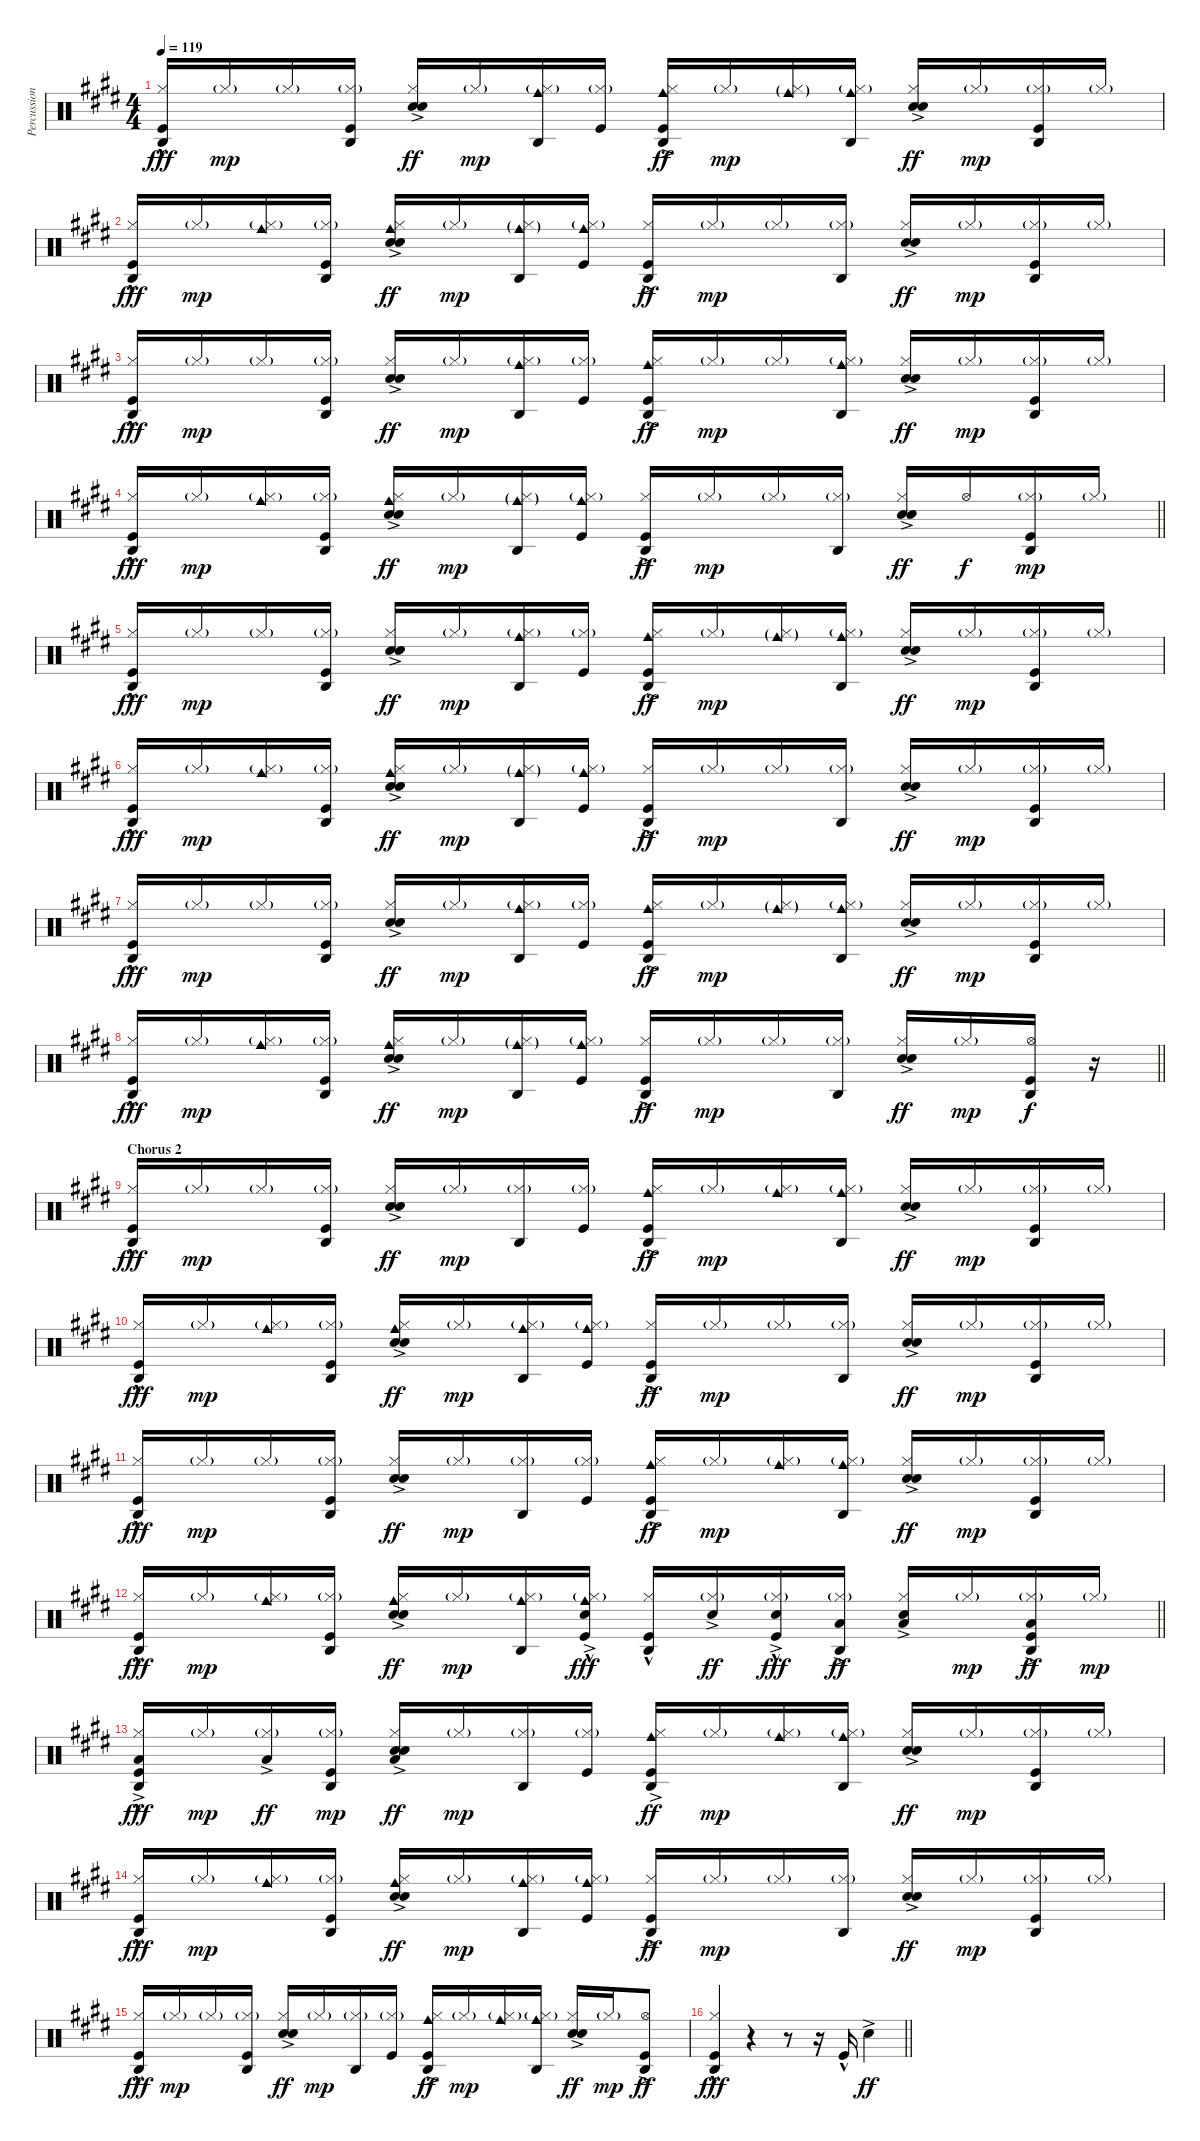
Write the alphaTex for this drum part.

\track ("Percussion" "Percussion") {instrument percussion}
\staff {score}
\articulation defaults
\ts (4 4)
\tempo 119
\clef neutral
\ks e
("Agogo high (hit)" "Hi-Hat (closed)" "Kick (hit)"{hac}).16{dy fff} "Hi-Hat (closed)"{g}.16{dy mp} "Hi-Hat (closed)"{g}.16 ("Agogo high (hit)" "Hi-Hat (closed)"{g} "Kick (hit)").16 ("Hi-Hat (closed)" "Hand Clap (hit)"{ac} "Snare (hit) 2"{ac}).16{dy ff} "Hi-Hat (closed)"{g}.16{dy mp} ("Agogo high (hit)" "Cowbell medium (hit)" "Hi-Hat (closed)"{g}).16 ("Hi-Hat (closed)"{g} "Kick (hit)").16 ("Agogo high (hit)" "Cowbell medium (hit)" "Hi-Hat (closed)" "Kick (hit)"{ac}).16{dy ff} "Hi-Hat (closed)"{g}.16{dy mp} ("Cowbell medium (hit)"{g} "Hi-Hat (closed)"{g}).16 ("Agogo high (hit)" "Cowbell medium (hit)" "Hi-Hat (closed)"{g}).16 ("Hi-Hat (closed)" "Hand Clap (hit)"{ac} "Snare (hit) 2"{ac}).16{dy ff} "Hi-Hat (closed)"{g}.16{dy mp} ("Agogo high (hit)" "Hi-Hat (closed)"{g} "Kick (hit)").16 "Hi-Hat (closed)"{g}.16 |
("Agogo high (hit)" "Hi-Hat (closed)" "Kick (hit)"{hac}).16{dy fff} "Hi-Hat (closed)"{g}.16{dy mp} ("Cowbell medium (hit)" "Hi-Hat (closed)"{g}).16 ("Agogo high (hit)" "Hi-Hat (closed)"{g} "Kick (hit)").16 ("Cowbell medium (hit)" "Hi-Hat (closed)" "Hand Clap (hit)"{ac} "Snare (hit) 2"{ac}).16{dy ff} "Hi-Hat (closed)"{g}.16{dy mp} ("Agogo high (hit)" "Cowbell medium (hit)"{g} "Hi-Hat (closed)"{g}).16 ("Cowbell medium (hit)" "Hi-Hat (closed)"{g} "Kick (hit)").16 ("Agogo high (hit)" "Hi-Hat (closed)" "Kick (hit)"{ac}).16{dy ff} "Hi-Hat (closed)"{g}.16{dy mp} "Hi-Hat (closed)"{g}.16 ("Agogo high (hit)" "Hi-Hat (closed)"{g}).16 ("Hi-Hat (closed)" "Hand Clap (hit)"{ac} "Snare (hit) 2"{ac}).16{dy ff} "Hi-Hat (closed)"{g}.16{dy mp} ("Agogo high (hit)" "Hi-Hat (closed)"{g} "Kick (hit)").16 "Hi-Hat (closed)"{g}.16 |
("Agogo high (hit)" "Hi-Hat (closed)" "Kick (hit)"{hac}).16{dy fff} "Hi-Hat (closed)"{g}.16{dy mp} "Hi-Hat (closed)"{g}.16 ("Agogo high (hit)" "Hi-Hat (closed)"{g} "Kick (hit)").16 ("Hi-Hat (closed)" "Hand Clap (hit)"{ac} "Snare (hit) 2"{ac}).16{dy ff} "Hi-Hat (closed)"{g}.16{dy mp} ("Agogo high (hit)" "Cowbell medium (hit)" "Hi-Hat (closed)"{g}).16 ("Hi-Hat (closed)"{g} "Kick (hit)").16 ("Agogo high (hit)" "Cowbell medium (hit)" "Hi-Hat (closed)" "Kick (hit)"{ac}).16{dy ff} "Hi-Hat (closed)"{g}.16{dy mp} "Hi-Hat (closed)"{g}.16 ("Agogo high (hit)" "Cowbell medium (hit)" "Hi-Hat (closed)"{g}).16 ("Hi-Hat (closed)" "Hand Clap (hit)"{ac} "Snare (hit) 2"{ac}).16{dy ff} "Hi-Hat (closed)"{g}.16{dy mp} ("Agogo high (hit)" "Hi-Hat (closed)"{g} "Kick (hit)").16 "Hi-Hat (closed)"{g}.16 |
\barLineRight lightlight
("Agogo high (hit)" "Hi-Hat (closed)" "Kick (hit)"{hac}).16{dy fff} "Hi-Hat (closed)"{g}.16{dy mp} ("Cowbell medium (hit)" "Hi-Hat (closed)"{g}).16 ("Agogo high (hit)" "Hi-Hat (closed)"{g} "Kick (hit)").16 ("Cowbell medium (hit)" "Hi-Hat (closed)" "Hand Clap (hit)"{ac} "Snare (hit) 2"{ac}).16{dy ff} "Hi-Hat (closed)"{g}.16{dy mp} ("Agogo high (hit)" "Cowbell medium (hit)"{g} "Hi-Hat (closed)"{g}).16 ("Cowbell medium (hit)" "Hi-Hat (closed)"{g} "Kick (hit)").16 ("Agogo high (hit)" "Hi-Hat (closed)" "Kick (hit)"{ac}).16{dy ff} "Hi-Hat (closed)"{g}.16{dy mp} "Hi-Hat (closed)"{g}.16 ("Agogo high (hit)" "Hi-Hat (closed)"{g}).16 ("Hi-Hat (closed)" "Hand Clap (hit)"{ac} "Snare (hit) 2"{ac}).16{dy ff} "Hi-Hat (open)".16{dy f} ("Agogo high (hit)" "Hi-Hat (closed)"{g} "Kick (hit)").16{dy mp} "Hi-Hat (closed)"{g}.16 |
("Agogo high (hit)" "Hi-Hat (closed)" "Kick (hit)"{hac}).16{dy fff} "Hi-Hat (closed)"{g}.16{dy mp} "Hi-Hat (closed)"{g}.16 ("Agogo high (hit)" "Hi-Hat (closed)"{g} "Kick (hit)").16 ("Hi-Hat (closed)" "Hand Clap (hit)"{ac} "Snare (hit) 2"{ac}).16{dy ff} "Hi-Hat (closed)"{g}.16{dy mp} ("Agogo high (hit)" "Cowbell medium (hit)" "Hi-Hat (closed)"{g}).16 ("Hi-Hat (closed)"{g} "Kick (hit)").16 ("Agogo high (hit)" "Cowbell medium (hit)" "Hi-Hat (closed)" "Kick (hit)"{ac}).16{dy ff} "Hi-Hat (closed)"{g}.16{dy mp} ("Cowbell medium (hit)"{g} "Hi-Hat (closed)"{g}).16 ("Agogo high (hit)" "Cowbell medium (hit)" "Hi-Hat (closed)"{g}).16 ("Hi-Hat (closed)" "Hand Clap (hit)"{ac} "Snare (hit) 2"{ac}).16{dy ff} "Hi-Hat (closed)"{g}.16{dy mp} ("Agogo high (hit)" "Hi-Hat (closed)"{g} "Kick (hit)").16 "Hi-Hat (closed)"{g}.16 |
("Agogo high (hit)" "Hi-Hat (closed)" "Kick (hit)"{hac}).16{dy fff} "Hi-Hat (closed)"{g}.16{dy mp} ("Cowbell medium (hit)" "Hi-Hat (closed)"{g}).16 ("Agogo high (hit)" "Hi-Hat (closed)"{g} "Kick (hit)").16 ("Cowbell medium (hit)" "Hi-Hat (closed)" "Hand Clap (hit)"{ac} "Snare (hit) 2"{ac}).16{dy ff} "Hi-Hat (closed)"{g}.16{dy mp} ("Agogo high (hit)" "Cowbell medium (hit)"{g} "Hi-Hat (closed)"{g}).16 ("Cowbell medium (hit)" "Hi-Hat (closed)"{g} "Kick (hit)").16 ("Agogo high (hit)" "Hi-Hat (closed)" "Kick (hit)"{ac}).16{dy ff} "Hi-Hat (closed)"{g}.16{dy mp} "Hi-Hat (closed)"{g}.16 ("Agogo high (hit)" "Hi-Hat (closed)"{g}).16 ("Hi-Hat (closed)" "Hand Clap (hit)"{ac} "Snare (hit) 2"{ac}).16{dy ff} "Hi-Hat (closed)"{g}.16{dy mp} ("Agogo high (hit)" "Hi-Hat (closed)"{g} "Kick (hit)").16 "Hi-Hat (closed)"{g}.16 |
("Agogo high (hit)" "Hi-Hat (closed)" "Kick (hit)"{hac}).16{dy fff} "Hi-Hat (closed)"{g}.16{dy mp} "Hi-Hat (closed)"{g}.16 ("Agogo high (hit)" "Hi-Hat (closed)"{g} "Kick (hit)").16 ("Hi-Hat (closed)" "Hand Clap (hit)"{ac} "Snare (hit) 2"{ac}).16{dy ff} "Hi-Hat (closed)"{g}.16{dy mp} ("Agogo high (hit)" "Cowbell medium (hit)" "Hi-Hat (closed)"{g}).16 ("Hi-Hat (closed)"{g} "Kick (hit)").16 ("Agogo high (hit)" "Cowbell medium (hit)" "Hi-Hat (closed)" "Kick (hit)"{ac}).16{dy ff} "Hi-Hat (closed)"{g}.16{dy mp} ("Cowbell medium (hit)"{g} "Hi-Hat (closed)"{g}).16 ("Agogo high (hit)" "Cowbell medium (hit)" "Hi-Hat (closed)"{g}).16 ("Hi-Hat (closed)" "Hand Clap (hit)"{ac} "Snare (hit) 2"{ac}).16{dy ff} "Hi-Hat (closed)"{g}.16{dy mp} ("Agogo high (hit)" "Hi-Hat (closed)"{g} "Kick (hit)").16 "Hi-Hat (closed)"{g}.16 |
\barLineRight lightlight
("Agogo high (hit)" "Hi-Hat (closed)" "Kick (hit)"{hac}).16{dy fff} "Hi-Hat (closed)"{g}.16{dy mp} ("Cowbell medium (hit)" "Hi-Hat (closed)"{g}).16 ("Agogo high (hit)" "Hi-Hat (closed)"{g} "Kick (hit)").16 ("Cowbell medium (hit)" "Hi-Hat (closed)" "Hand Clap (hit)"{ac} "Snare (hit) 2"{ac}).16{dy ff} "Hi-Hat (closed)"{g}.16{dy mp} ("Agogo high (hit)" "Cowbell medium (hit)"{g} "Hi-Hat (closed)"{g}).16 ("Cowbell medium (hit)" "Hi-Hat (closed)"{g} "Kick (hit)").16 ("Agogo high (hit)" "Hi-Hat (closed)" "Kick (hit)"{ac}).16{dy ff} "Hi-Hat (closed)"{g}.16{dy mp} "Hi-Hat (closed)"{g}.16 ("Agogo high (hit)" "Hi-Hat (closed)"{g}).16 ("Hi-Hat (closed)" "Hand Clap (hit)"{ac} "Snare (hit) 2"{ac}).16{dy ff} "Hi-Hat (closed)"{g}.16{dy mp} ("Agogo high (hit)" "Hi-Hat (open)" "Kick (hit)").16{dy f} r.16 |
\section ("" "Chorus 2")
("Agogo high (hit)" "Hi-Hat (closed)" "Kick (hit)"{hac}).16{dy fff} "Hi-Hat (closed)"{g}.16{dy mp} "Hi-Hat (closed)"{g}.16 ("Agogo high (hit)" "Hi-Hat (closed)"{g} "Kick (hit)").16 ("Hi-Hat (closed)" "Hand Clap (hit)"{ac} "Snare (hit) 2"{ac}).16{dy ff} "Hi-Hat (closed)"{g}.16{dy mp} ("Agogo high (hit)" "Hi-Hat (closed)"{g}).16 ("Hi-Hat (closed)"{g} "Kick (hit)").16 ("Agogo high (hit)" "Cowbell medium (hit)" "Hi-Hat (closed)" "Kick (hit)"{ac}).16{dy ff} "Hi-Hat (closed)"{g}.16{dy mp} ("Cowbell medium (hit)" "Hi-Hat (closed)"{g}).16 ("Agogo high (hit)" "Cowbell medium (hit)" "Hi-Hat (closed)"{g}).16 ("Hi-Hat (closed)" "Hand Clap (hit)"{ac} "Snare (hit) 2"{ac}).16{dy ff} "Hi-Hat (closed)"{g}.16{dy mp} ("Agogo high (hit)" "Hi-Hat (closed)"{g} "Kick (hit)").16 "Hi-Hat (closed)"{g}.16 |
("Agogo high (hit)" "Hi-Hat (closed)" "Kick (hit)"{hac}).16{dy fff} "Hi-Hat (closed)"{g}.16{dy mp} ("Cowbell medium (hit)" "Hi-Hat (closed)"{g}).16 ("Agogo high (hit)" "Hi-Hat (closed)"{g} "Kick (hit)").16 ("Cowbell medium (hit)" "Hi-Hat (closed)" "Hand Clap (hit)"{ac} "Snare (hit) 2"{ac}).16{dy ff} "Hi-Hat (closed)"{g}.16{dy mp} ("Agogo high (hit)" "Cowbell medium (hit)" "Hi-Hat (closed)"{g}).16 ("Cowbell medium (hit)" "Hi-Hat (closed)"{g} "Kick (hit)").16 ("Agogo high (hit)" "Hi-Hat (closed)" "Kick (hit)"{ac}).16{dy ff} "Hi-Hat (closed)"{g}.16{dy mp} "Hi-Hat (closed)"{g}.16 ("Agogo high (hit)" "Hi-Hat (closed)"{g}).16 ("Hi-Hat (closed)" "Hand Clap (hit)"{ac} "Snare (hit) 2"{ac}).16{dy ff} "Hi-Hat (closed)"{g}.16{dy mp} ("Agogo high (hit)" "Hi-Hat (closed)"{g} "Kick (hit)").16 "Hi-Hat (closed)"{g}.16 |
("Agogo high (hit)" "Hi-Hat (closed)" "Kick (hit)"{hac}).16{dy fff} "Hi-Hat (closed)"{g}.16{dy mp} "Hi-Hat (closed)"{g}.16 ("Agogo high (hit)" "Hi-Hat (closed)"{g} "Kick (hit)").16 ("Hi-Hat (closed)" "Hand Clap (hit)"{ac} "Snare (hit) 2"{ac}).16{dy ff} "Hi-Hat (closed)"{g}.16{dy mp} ("Agogo high (hit)" "Hi-Hat (closed)"{g}).16 ("Hi-Hat (closed)"{g} "Kick (hit)").16 ("Agogo high (hit)" "Cowbell medium (hit)" "Hi-Hat (closed)" "Kick (hit)"{ac}).16{dy ff} "Hi-Hat (closed)"{g}.16{dy mp} ("Cowbell medium (hit)" "Hi-Hat (closed)"{g}).16 ("Agogo high (hit)" "Cowbell medium (hit)" "Hi-Hat (closed)"{g}).16 ("Hi-Hat (closed)" "Hand Clap (hit)"{ac} "Snare (hit) 2"{ac}).16{dy ff} "Hi-Hat (closed)"{g}.16{dy mp} ("Agogo high (hit)" "Hi-Hat (closed)"{g} "Kick (hit)").16 "Hi-Hat (closed)"{g}.16 |
\barLineRight lightlight
("Agogo high (hit)" "Hi-Hat (closed)" "Kick (hit)"{hac}).16{dy fff} "Hi-Hat (closed)"{g}.16{dy mp} ("Cowbell medium (hit)" "Hi-Hat (closed)"{g}).16 ("Agogo high (hit)" "Hi-Hat (closed)"{g} "Kick (hit)").16 ("Cowbell medium (hit)" "Hi-Hat (closed)" "Hand Clap (hit)"{ac} "Snare (hit) 2"{ac}).16{dy ff} "Hi-Hat (closed)"{g}.16{dy mp} ("Agogo high (hit)" "Cowbell medium (hit)" "Hi-Hat (closed)"{g}).16 ("Cowbell medium (hit)" "Hi-Hat (closed)"{g} "Hand Clap (hit)"{ac} "Kick (hit)"{hac}).16{dy fff} ("Agogo high (hit)" "Hi-Hat (closed)" "Kick (hit)"{hac}).16 ("Hi-Hat (closed)"{g} "Hand Clap (hit)"{ac}).16{dy ff} ("Hi-Hat (closed)"{g} "Hand Clap (hit)"{ac} "Kick (hit)"{hac}).16{dy fff} ("Agogo high (hit)" "Hi-Hat (closed)"{g} "Low Tom (hit)"{ac}).16{dy ff} ("Hi-Hat (closed)" "Hand Clap (hit)"{ac} "Low Tom (hit)"{ac}).16 "Hi-Hat (closed)"{g}.16{dy mp} ("Agogo high (hit)" "Hi-Hat (closed)"{g} "Low Tom (hit)"{ac} "Kick (hit)").16{dy ff} "Hi-Hat (closed)"{g}.16{dy mp} |
("Agogo high (hit)" "Hi-Hat (closed)" "Low Tom (hit)"{ac} "Kick (hit)"{hac}).16{dy fff} "Hi-Hat (closed)"{g}.16{dy mp} ("Hi-Hat (closed)"{g} "Low Tom (hit)"{ac}).16{dy ff} ("Agogo high (hit)" "Hi-Hat (closed)"{g} "Kick (hit)").16{dy mp} ("Hi-Hat (closed)" "Hand Clap (hit)"{ac} "Snare (hit) 2"{ac} "Low Tom (hit)"{ac}).16{dy ff} "Hi-Hat (closed)"{g}.16{dy mp} ("Agogo high (hit)" "Hi-Hat (closed)"{g}).16 ("Hi-Hat (closed)"{g} "Kick (hit)").16 ("Agogo high (hit)" "Cowbell medium (hit)" "Hi-Hat (closed)" "Kick (hit)"{ac}).16{dy ff} "Hi-Hat (closed)"{g}.16{dy mp} ("Cowbell medium (hit)" "Hi-Hat (closed)"{g}).16 ("Agogo high (hit)" "Cowbell medium (hit)" "Hi-Hat (closed)"{g}).16 ("Hi-Hat (closed)" "Hand Clap (hit)"{ac} "Snare (hit) 2"{ac}).16{dy ff} "Hi-Hat (closed)"{g}.16{dy mp} ("Agogo high (hit)" "Hi-Hat (closed)"{g} "Kick (hit)").16 "Hi-Hat (closed)"{g}.16 |
("Agogo high (hit)" "Hi-Hat (closed)" "Kick (hit)"{hac}).16{dy fff} "Hi-Hat (closed)"{g}.16{dy mp} ("Cowbell medium (hit)" "Hi-Hat (closed)"{g}).16 ("Agogo high (hit)" "Hi-Hat (closed)"{g} "Kick (hit)").16 ("Cowbell medium (hit)" "Hi-Hat (closed)" "Hand Clap (hit)"{ac} "Snare (hit) 2"{ac}).16{dy ff} "Hi-Hat (closed)"{g}.16{dy mp} ("Agogo high (hit)" "Cowbell medium (hit)" "Hi-Hat (closed)"{g}).16 ("Cowbell medium (hit)" "Hi-Hat (closed)"{g} "Kick (hit)").16 ("Agogo high (hit)" "Hi-Hat (closed)" "Kick (hit)"{ac}).16{dy ff} "Hi-Hat (closed)"{g}.16{dy mp} "Hi-Hat (closed)"{g}.16 ("Agogo high (hit)" "Hi-Hat (closed)"{g}).16 ("Hi-Hat (closed)" "Hand Clap (hit)"{ac} "Snare (hit) 2"{ac}).16{dy ff} "Hi-Hat (closed)"{g}.16{dy mp} ("Agogo high (hit)" "Hi-Hat (closed)"{g} "Kick (hit)").16 "Hi-Hat (closed)"{g}.16 |
("Agogo high (hit)" "Hi-Hat (closed)" "Kick (hit)"{hac}).16{dy fff} "Hi-Hat (closed)"{g}.16{dy mp} "Hi-Hat (closed)"{g}.16 ("Agogo high (hit)" "Hi-Hat (closed)"{g} "Kick (hit)").16 ("Hi-Hat (closed)" "Hand Clap (hit)"{ac} "Snare (hit) 2"{ac}).16{dy ff} "Hi-Hat (closed)"{g}.16{dy mp} ("Agogo high (hit)" "Hi-Hat (closed)"{g}).16 ("Hi-Hat (closed)"{g} "Kick (hit)").16 ("Agogo high (hit)" "Cowbell medium (hit)" "Hi-Hat (closed)" "Kick (hit)"{ac}).16{dy ff} "Hi-Hat (closed)"{g}.16{dy mp} ("Cowbell medium (hit)" "Hi-Hat (closed)"{g}).16 ("Agogo high (hit)" "Cowbell medium (hit)" "Hi-Hat (closed)"{g}).16 ("Hi-Hat (closed)" "Hand Clap (hit)"{ac} "Snare (hit) 2"{ac}).16{dy ff} "Hi-Hat (closed)"{g}.16{dy mp} ("Agogo high (hit)" "Hi-Hat (open)"{ac} "Kick (hit)").8{dy ff} |
\barLineRight lightlight
("Agogo high (hit)" "Hi-Hat (closed)" "Kick (hit)"{hac}).4{dy fff} r.4 r.8 r.16 "Kick (hit)"{hac}.16 "Snare (hit) 2"{ac}.4{dy ff}
